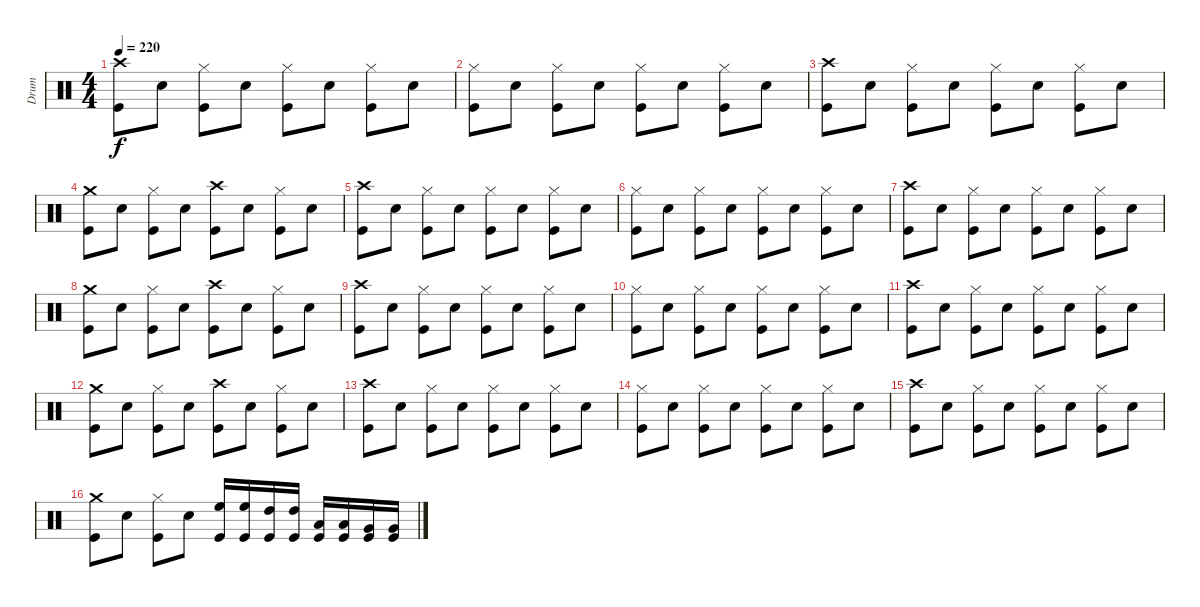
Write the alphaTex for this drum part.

\track ("Drum" "Drum") {instrument percussion}
\staff {score}
\articulation defaults
\ts (4 4)
\tempo 220
\clef neutral
\ks c
("Crash high (hit)" "Kick (hit)").8{dy f} "Snare (hit) 2".8 ("Hi-Hat (closed)" "Kick (hit)").8 "Snare (hit) 2".8 ("Hi-Hat (closed)" "Kick (hit)").8 "Snare (hit) 2".8 ("Hi-Hat (closed)" "Kick (hit)").8 "Snare (hit) 2".8 |
("Hi-Hat (closed)" "Kick (hit)").8 "Snare (hit) 2".8 ("Hi-Hat (closed)" "Kick (hit)").8 "Snare (hit) 2".8 ("Hi-Hat (closed)" "Kick (hit)").8 "Snare (hit) 2".8 ("Hi-Hat (closed)" "Kick (hit)").8 "Snare (hit) 2".8 |
("Crash high (hit)" "Kick (hit)").8 "Snare (hit) 2".8 ("Hi-Hat (closed)" "Kick (hit)").8 "Snare (hit) 2".8 ("Hi-Hat (closed)" "Kick (hit)").8 "Snare (hit) 2".8 ("Hi-Hat (closed)" "Kick (hit)").8 "Snare (hit) 2".8 |
("Crash medium (hit)" "Kick (hit)").8 "Snare (hit) 2".8 ("Hi-Hat (closed)" "Kick (hit)").8 "Snare (hit) 2".8 ("Crash high (hit)" "Kick (hit)").8 "Snare (hit) 2".8 ("Hi-Hat (closed)" "Kick (hit)").8 "Snare (hit) 2".8 |
("Crash high (hit)" "Kick (hit)").8 "Snare (hit) 2".8 ("Hi-Hat (closed)" "Kick (hit)").8 "Snare (hit) 2".8 ("Hi-Hat (closed)" "Kick (hit)").8 "Snare (hit) 2".8 ("Hi-Hat (closed)" "Kick (hit)").8 "Snare (hit) 2".8 |
("Hi-Hat (closed)" "Kick (hit)").8 "Snare (hit) 2".8 ("Hi-Hat (closed)" "Kick (hit)").8 "Snare (hit) 2".8 ("Hi-Hat (closed)" "Kick (hit)").8 "Snare (hit) 2".8 ("Hi-Hat (closed)" "Kick (hit)").8 "Snare (hit) 2".8 |
("Crash high (hit)" "Kick (hit)").8 "Snare (hit) 2".8 ("Hi-Hat (closed)" "Kick (hit)").8 "Snare (hit) 2".8 ("Hi-Hat (closed)" "Kick (hit)").8 "Snare (hit) 2".8 ("Hi-Hat (closed)" "Kick (hit)").8 "Snare (hit) 2".8 |
("Crash medium (hit)" "Kick (hit)").8 "Snare (hit) 2".8 ("Hi-Hat (closed)" "Kick (hit)").8 "Snare (hit) 2".8 ("Crash high (hit)" "Kick (hit)").8 "Snare (hit) 2".8 ("Hi-Hat (closed)" "Kick (hit)").8 "Snare (hit) 2".8 |
("Crash high (hit)" "Kick (hit)").8 "Snare (hit) 2".8 ("Hi-Hat (closed)" "Kick (hit)").8 "Snare (hit) 2".8 ("Hi-Hat (closed)" "Kick (hit)").8 "Snare (hit) 2".8 ("Hi-Hat (closed)" "Kick (hit)").8 "Snare (hit) 2".8 |
("Hi-Hat (closed)" "Kick (hit)").8 "Snare (hit) 2".8 ("Hi-Hat (closed)" "Kick (hit)").8 "Snare (hit) 2".8 ("Hi-Hat (closed)" "Kick (hit)").8 "Snare (hit) 2".8 ("Hi-Hat (closed)" "Kick (hit)").8 "Snare (hit) 2".8 |
("Crash high (hit)" "Kick (hit)").8 "Snare (hit) 2".8 ("Hi-Hat (closed)" "Kick (hit)").8 "Snare (hit) 2".8 ("Hi-Hat (closed)" "Kick (hit)").8 "Snare (hit) 2".8 ("Hi-Hat (closed)" "Kick (hit)").8 "Snare (hit) 2".8 |
("Crash medium (hit)" "Kick (hit)").8 "Snare (hit) 2".8 ("Hi-Hat (closed)" "Kick (hit)").8 "Snare (hit) 2".8 ("Crash high (hit)" "Kick (hit)").8 "Snare (hit) 2".8 ("Hi-Hat (closed)" "Kick (hit)").8 "Snare (hit) 2".8 |
("Crash high (hit)" "Kick (hit)").8 "Snare (hit) 2".8 ("Hi-Hat (closed)" "Kick (hit)").8 "Snare (hit) 2".8 ("Hi-Hat (closed)" "Kick (hit)").8 "Snare (hit) 2".8 ("Hi-Hat (closed)" "Kick (hit)").8 "Snare (hit) 2".8 |
("Hi-Hat (closed)" "Kick (hit)").8 "Snare (hit) 2".8 ("Hi-Hat (closed)" "Kick (hit)").8 "Snare (hit) 2".8 ("Hi-Hat (closed)" "Kick (hit)").8 "Snare (hit) 2".8 ("Hi-Hat (closed)" "Kick (hit)").8 "Snare (hit) 2".8 |
("Crash high (hit)" "Kick (hit)").8 "Snare (hit) 2".8 ("Hi-Hat (closed)" "Kick (hit)").8 "Snare (hit) 2".8 ("Hi-Hat (closed)" "Kick (hit)").8 "Snare (hit) 2".8 ("Hi-Hat (closed)" "Kick (hit)").8 "Snare (hit) 2".8 |
("Crash medium (hit)" "Kick (hit)").8 "Snare (hit) 2".8 ("Hi-Hat (closed)" "Kick (hit)").8 "Snare (hit) 2".8 ("High Floor Tom (hit)" "Kick (hit)").16 ("High Floor Tom (hit)" "Kick (hit)").16 ("High Tom (hit)" "Kick (hit)").16 ("High Tom (hit)" "Kick (hit)").16 ("Low Tom (hit)" "Kick (hit)").16 ("Low Tom (hit)" "Kick (hit)").16 ("Very Low Tom (hit)" "Kick (hit)").16 ("Very Low Tom (hit)" "Kick (hit)").16
